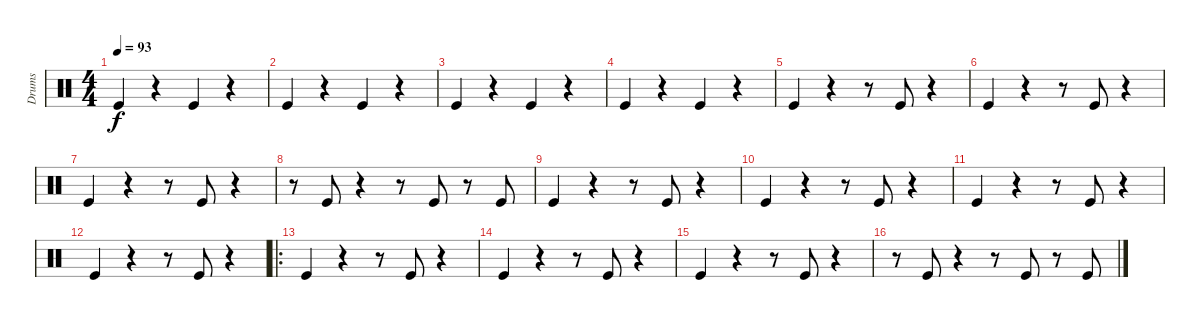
\track ("Drums" "Drums") {instrument percussion}
\staff {score}
\articulation defaults
\ts (4 4)
\tempo 93
\clef neutral
\ks c "Kick (hit)".4{dy f}
r.4 "Kick (hit)".4 r.4 |
"Kick (hit)".4 r.4 "Kick (hit)".4 r.4 |
"Kick (hit)".4 r.4 "Kick (hit)".4 r.4 |
"Kick (hit)".4 r.4 "Kick (hit)".4 r.4 |
"Kick (hit)".4 r.4 r.8 "Kick (hit)".8 r.4 |
"Kick (hit)".4 r.4 r.8 "Kick (hit)".8 r.4 |
"Kick (hit)".4 r.4 r.8 "Kick (hit)".8 r.4 |
r.8 "Kick (hit)".8 r.4 r.8 "Kick (hit)".8 r.8 "Kick (hit)".8 |
"Kick (hit)".4 r.4 r.8 "Kick (hit)".8 r.4 |
"Kick (hit)".4 r.4 r.8 "Kick (hit)".8 r.4 |
"Kick (hit)".4 r.4 r.8 "Kick (hit)".8 r.4 |
"Kick (hit)".4 r.4 r.8 "Kick (hit)".8 r.4 |
\ro "Kick (hit)".4
r.4 r.8 "Kick (hit)".8 r.4 |
"Kick (hit)".4 r.4 r.8 "Kick (hit)".8 r.4 |
"Kick (hit)".4 r.4 r.8 "Kick (hit)".8 r.4 |
r.8 "Kick (hit)".8 r.4 r.8 "Kick (hit)".8 r.8 "Kick (hit)".8
